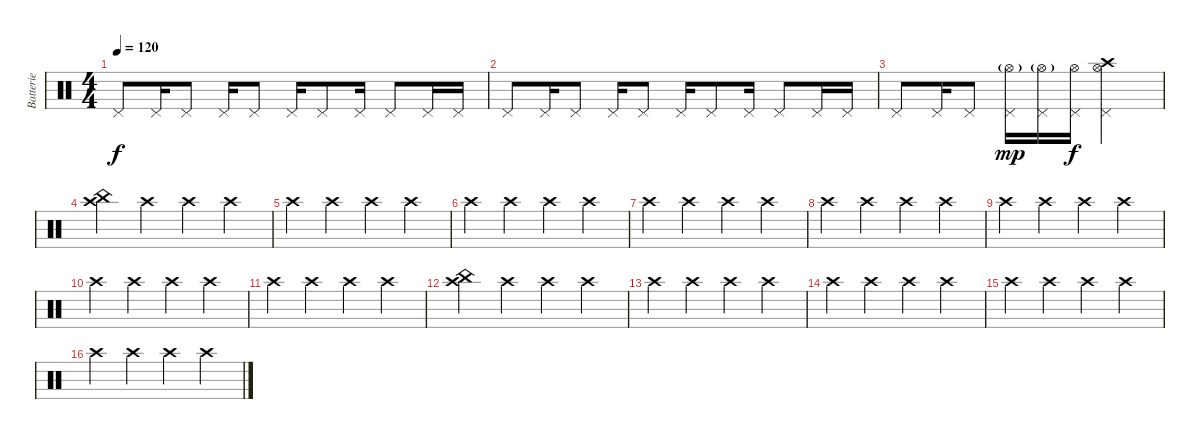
\track ("Batterie" "Batterie") {instrument percussion}
\staff {score}
\articulation defaults
\ts (4 4)
\tempo 120
\clef neutral
\ks c "Pedal Hi-Hat (hit)".8{dy f} "Pedal Hi-Hat (hit)".16 "Pedal Hi-Hat (hit)".8 "Pedal Hi-Hat (hit)".16 "Pedal Hi-Hat (hit)".8 "Pedal Hi-Hat (hit)".16 "Pedal Hi-Hat (hit)".8 "Pedal Hi-Hat (hit)".16 "Pedal Hi-Hat (hit)".8 "Pedal Hi-Hat (hit)".16 "Pedal Hi-Hat (hit)".16
|
"Pedal Hi-Hat (hit)".8 "Pedal Hi-Hat (hit)".16 "Pedal Hi-Hat (hit)".8 "Pedal Hi-Hat (hit)".16 "Pedal Hi-Hat (hit)".8 "Pedal Hi-Hat (hit)".16 "Pedal Hi-Hat (hit)".8 "Pedal Hi-Hat (hit)".16 "Pedal Hi-Hat (hit)".8 "Pedal Hi-Hat (hit)".16 "Pedal Hi-Hat (hit)".16 |
"Pedal Hi-Hat (hit)".8 "Pedal Hi-Hat (hit)".16 "Pedal Hi-Hat (hit)".8 ("Pedal Hi-Hat (hit)" "Hi-Hat (open)"{g}).16{dy mp} ("Pedal Hi-Hat (hit)" "Hi-Hat (open)"{g}).16 ("Pedal Hi-Hat (hit)" "Hi-Hat (open)").16{dy f} ("Pedal Hi-Hat (hit)" "Hi-Hat (open)" "Crash high (hit)").2 |
("China (hit)" "Crash high (hit)").4 "Crash high (hit)".4 "Crash high (hit)".4 "Crash high (hit)".4 |
"Crash high (hit)".4 "Crash high (hit)".4 "Crash high (hit)".4 "Crash high (hit)".4 |
"Crash high (hit)".4 "Crash high (hit)".4 "Crash high (hit)".4 "Crash high (hit)".4 |
"Crash high (hit)".4 "Crash high (hit)".4 "Crash high (hit)".4 "Crash high (hit)".4 |
"Crash high (hit)".4 "Crash high (hit)".4 "Crash high (hit)".4 "Crash high (hit)".4 |
"Crash high (hit)".4 "Crash high (hit)".4 "Crash high (hit)".4 "Crash high (hit)".4 |
"Crash high (hit)".4 "Crash high (hit)".4 "Crash high (hit)".4 "Crash high (hit)".4 |
"Crash high (hit)".4 "Crash high (hit)".4 "Crash high (hit)".4 "Crash high (hit)".4 |
("China (hit)" "Crash high (hit)").4 "Crash high (hit)".4 "Crash high (hit)".4 "Crash high (hit)".4 |
"Crash high (hit)".4 "Crash high (hit)".4 "Crash high (hit)".4 "Crash high (hit)".4 |
"Crash high (hit)".4 "Crash high (hit)".4 "Crash high (hit)".4 "Crash high (hit)".4 |
"Crash high (hit)".4 "Crash high (hit)".4 "Crash high (hit)".4 "Crash high (hit)".4 |
"Crash high (hit)".4 "Crash high (hit)".4 "Crash high (hit)".4 "Crash high (hit)".4
